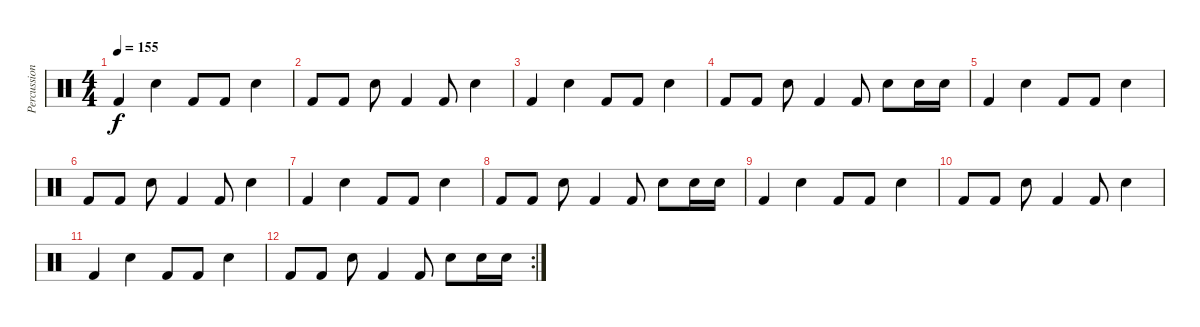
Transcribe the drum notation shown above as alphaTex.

\track ("Percussion" "Percussion") {instrument percussion}
\staff {score}
\articulation defaults
\ts (4 4)
\tempo 155
\clef neutral
\ks c "Kick (hit) 2".4{dy f} "Snare (hit) 2".4 "Kick (hit) 2".8 "Kick (hit) 2".8 "Snare (hit) 2".4
|
"Kick (hit) 2".8 "Kick (hit) 2".8 "Snare (hit) 2".8 "Kick (hit) 2".4 "Kick (hit) 2".8 "Snare (hit) 2".4 |
"Kick (hit) 2".4 "Snare (hit) 2".4 "Kick (hit) 2".8 "Kick (hit) 2".8 "Snare (hit) 2".4 |
"Kick (hit) 2".8 "Kick (hit) 2".8 "Snare (hit) 2".8 "Kick (hit) 2".4 "Kick (hit) 2".8 "Snare (hit) 2".8 "Snare (hit) 2".16 "Snare (hit) 2".16 |
"Kick (hit) 2".4 "Snare (hit) 2".4 "Kick (hit) 2".8 "Kick (hit) 2".8 "Snare (hit) 2".4 |
"Kick (hit) 2".8 "Kick (hit) 2".8 "Snare (hit) 2".8 "Kick (hit) 2".4 "Kick (hit) 2".8 "Snare (hit) 2".4 |
"Kick (hit) 2".4 "Snare (hit) 2".4 "Kick (hit) 2".8 "Kick (hit) 2".8 "Snare (hit) 2".4 |
"Kick (hit) 2".8 "Kick (hit) 2".8 "Snare (hit) 2".8 "Kick (hit) 2".4 "Kick (hit) 2".8 "Snare (hit) 2".8 "Snare (hit) 2".16 "Snare (hit) 2".16 |
"Kick (hit) 2".4 "Snare (hit) 2".4 "Kick (hit) 2".8 "Kick (hit) 2".8 "Snare (hit) 2".4 |
"Kick (hit) 2".8 "Kick (hit) 2".8 "Snare (hit) 2".8 "Kick (hit) 2".4 "Kick (hit) 2".8 "Snare (hit) 2".4 |
"Kick (hit) 2".4 "Snare (hit) 2".4 "Kick (hit) 2".8 "Kick (hit) 2".8 "Snare (hit) 2".4 |
\rc 2 "Kick (hit) 2".8 "Kick (hit) 2".8 "Snare (hit) 2".8 "Kick (hit) 2".4 "Kick (hit) 2".8 "Snare (hit) 2".8 "Snare (hit) 2".16 "Snare (hit) 2".16
